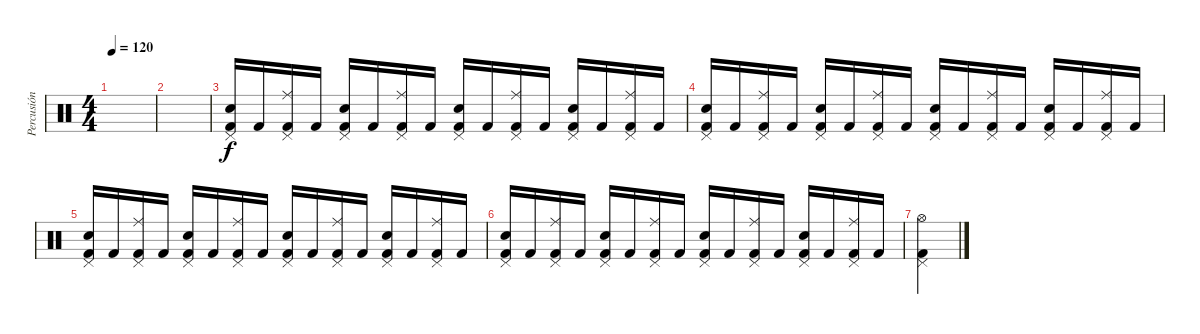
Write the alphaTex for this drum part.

\track ("Percusión" "Percusión") {instrument percussion}
\staff {score}
\articulation defaults
\ts (4 4)
\tempo 120
\clef neutral
\ks c
|
|
("Snare (hit) 2" "Pedal Hi-Hat (hit)" "Kick (hit) 2").16 "Kick (hit) 2".16 ("Ride (middle)" "Pedal Hi-Hat (hit)" "Kick (hit) 2").16 "Kick (hit) 2".16 ("Snare (hit) 2" "Pedal Hi-Hat (hit)" "Kick (hit) 2").16 "Kick (hit) 2".16 ("Ride (middle)" "Pedal Hi-Hat (hit)" "Kick (hit) 2").16 "Kick (hit) 2".16 ("Snare (hit) 2" "Pedal Hi-Hat (hit)" "Kick (hit) 2").16 "Kick (hit) 2".16 ("Ride (middle)" "Pedal Hi-Hat (hit)" "Kick (hit) 2").16 "Kick (hit) 2".16 ("Snare (hit) 2" "Pedal Hi-Hat (hit)" "Kick (hit) 2").16 "Kick (hit) 2".16 ("Ride (middle)" "Pedal Hi-Hat (hit)" "Kick (hit) 2").16 "Kick (hit) 2".16 |
("Snare (hit) 2" "Pedal Hi-Hat (hit)" "Kick (hit) 2").16 "Kick (hit) 2".16 ("Ride (middle)" "Pedal Hi-Hat (hit)" "Kick (hit) 2").16 "Kick (hit) 2".16 ("Snare (hit) 2" "Pedal Hi-Hat (hit)" "Kick (hit) 2").16 "Kick (hit) 2".16 ("Ride (middle)" "Pedal Hi-Hat (hit)" "Kick (hit) 2").16 "Kick (hit) 2".16 ("Snare (hit) 2" "Pedal Hi-Hat (hit)" "Kick (hit) 2").16 "Kick (hit) 2".16 ("Ride (middle)" "Pedal Hi-Hat (hit)" "Kick (hit) 2").16 "Kick (hit) 2".16 ("Snare (hit) 2" "Pedal Hi-Hat (hit)" "Kick (hit) 2").16 "Kick (hit) 2".16 ("Ride (middle)" "Pedal Hi-Hat (hit)" "Kick (hit) 2").16 "Kick (hit) 2".16 |
("Snare (hit) 2" "Pedal Hi-Hat (hit)" "Kick (hit) 2").16 "Kick (hit) 2".16 ("Ride (middle)" "Pedal Hi-Hat (hit)" "Kick (hit) 2").16 "Kick (hit) 2".16 ("Snare (hit) 2" "Pedal Hi-Hat (hit)" "Kick (hit) 2").16 "Kick (hit) 2".16 ("Ride (middle)" "Pedal Hi-Hat (hit)" "Kick (hit) 2").16 "Kick (hit) 2".16 ("Snare (hit) 2" "Pedal Hi-Hat (hit)" "Kick (hit) 2").16 "Kick (hit) 2".16 ("Ride (middle)" "Pedal Hi-Hat (hit)" "Kick (hit) 2").16 "Kick (hit) 2".16 ("Snare (hit) 2" "Pedal Hi-Hat (hit)" "Kick (hit) 2").16 "Kick (hit) 2".16 ("Ride (middle)" "Pedal Hi-Hat (hit)" "Kick (hit) 2").16 "Kick (hit) 2".16 |
("Snare (hit) 2" "Pedal Hi-Hat (hit)" "Kick (hit) 2").16 "Kick (hit) 2".16 ("Ride (middle)" "Pedal Hi-Hat (hit)" "Kick (hit) 2").16 "Kick (hit) 2".16 ("Snare (hit) 2" "Pedal Hi-Hat (hit)" "Kick (hit) 2").16 "Kick (hit) 2".16 ("Ride (middle)" "Pedal Hi-Hat (hit)" "Kick (hit) 2").16 "Kick (hit) 2".16 ("Snare (hit) 2" "Pedal Hi-Hat (hit)" "Kick (hit) 2").16 "Kick (hit) 2".16 ("Ride (middle)" "Pedal Hi-Hat (hit)" "Kick (hit) 2").16 "Kick (hit) 2".16 ("Snare (hit) 2" "Pedal Hi-Hat (hit)" "Kick (hit) 2").16 "Kick (hit) 2".16 ("Ride (middle)" "Pedal Hi-Hat (hit)" "Kick (hit) 2").16 "Kick (hit) 2".16 |
("Hi-Hat (open)" "Pedal Hi-Hat (hit)" "Kick (hit) 2").4
